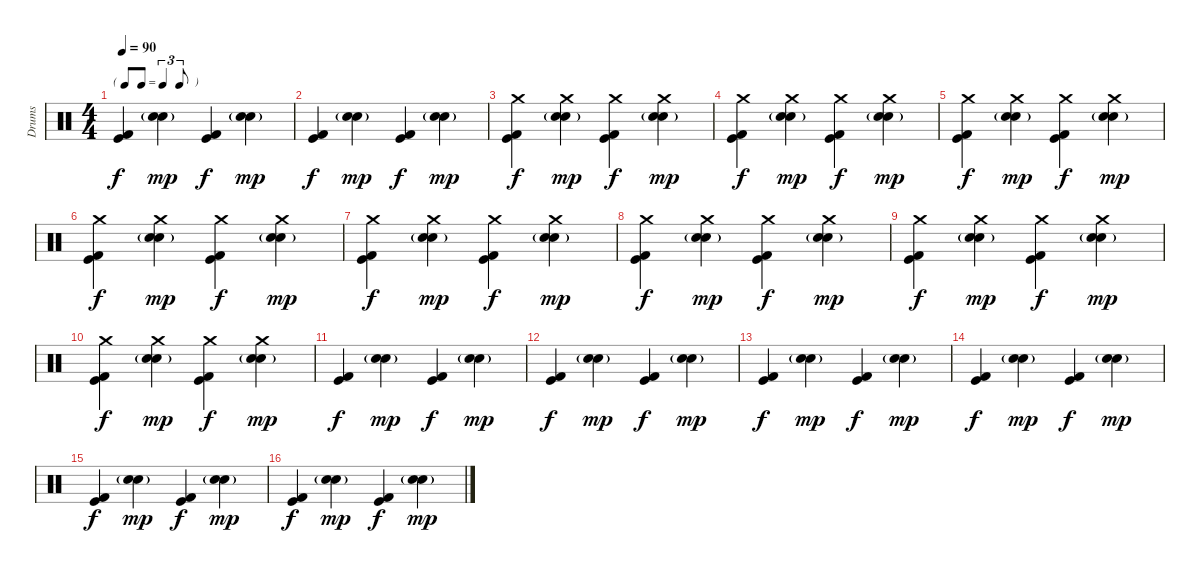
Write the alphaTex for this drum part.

\track ("Drums" "Drums") {instrument percussion}
\staff {score}
\articulation defaults
\ts (4 4)
\tf triplet8th
\tempo 90
\clef neutral
\ks c
("Kick (hit)" "Kick (hit) 2").4{dy f} ("Snare (hit) 2" "Hand Clap (hit)"{g}).4{dy mp} ("Kick (hit)" "Kick (hit) 2").4{dy f} ("Snare (hit) 2" "Hand Clap (hit)"{g}).4{dy mp} |
("Kick (hit)" "Kick (hit) 2").4{dy f} ("Snare (hit) 2" "Hand Clap (hit)"{g}).4{dy mp} ("Kick (hit)" "Kick (hit) 2").4{dy f} ("Snare (hit) 2" "Hand Clap (hit)"{g}).4{dy mp} |
("Crash medium (hit)" "Kick (hit)" "Kick (hit) 2").4{dy f} ("Crash medium (hit)" "Snare (hit) 2" "Hand Clap (hit)"{g}).4{dy mp} ("Crash medium (hit)" "Kick (hit)" "Kick (hit) 2").4{dy f} ("Crash medium (hit)" "Snare (hit) 2" "Hand Clap (hit)"{g}).4{dy mp} |
("Crash medium (hit)" "Kick (hit)" "Kick (hit) 2").4{dy f} ("Crash medium (hit)" "Snare (hit) 2" "Hand Clap (hit)"{g}).4{dy mp} ("Crash medium (hit)" "Kick (hit)" "Kick (hit) 2").4{dy f} ("Crash medium (hit)" "Snare (hit) 2" "Hand Clap (hit)"{g}).4{dy mp} |
("Crash medium (hit)" "Kick (hit)" "Kick (hit) 2").4{dy f} ("Crash medium (hit)" "Snare (hit) 2" "Hand Clap (hit)"{g}).4{dy mp} ("Crash medium (hit)" "Kick (hit)" "Kick (hit) 2").4{dy f} ("Crash medium (hit)" "Snare (hit) 2" "Hand Clap (hit)"{g}).4{dy mp} |
("Crash medium (hit)" "Kick (hit)" "Kick (hit) 2").4{dy f} ("Crash medium (hit)" "Snare (hit) 2" "Hand Clap (hit)"{g}).4{dy mp} ("Crash medium (hit)" "Kick (hit)" "Kick (hit) 2").4{dy f} ("Crash medium (hit)" "Snare (hit) 2" "Hand Clap (hit)"{g}).4{dy mp} |
("Crash medium (hit)" "Kick (hit)" "Kick (hit) 2").4{dy f} ("Crash medium (hit)" "Snare (hit) 2" "Hand Clap (hit)"{g}).4{dy mp} ("Crash medium (hit)" "Kick (hit)" "Kick (hit) 2").4{dy f} ("Crash medium (hit)" "Snare (hit) 2" "Hand Clap (hit)"{g}).4{dy mp} |
("Crash medium (hit)" "Kick (hit)" "Kick (hit) 2").4{dy f} ("Crash medium (hit)" "Snare (hit) 2" "Hand Clap (hit)"{g}).4{dy mp} ("Crash medium (hit)" "Kick (hit)" "Kick (hit) 2").4{dy f} ("Crash medium (hit)" "Snare (hit) 2" "Hand Clap (hit)"{g}).4{dy mp} |
("Crash medium (hit)" "Kick (hit)" "Kick (hit) 2").4{dy f} ("Crash medium (hit)" "Snare (hit) 2" "Hand Clap (hit)"{g}).4{dy mp} ("Crash medium (hit)" "Kick (hit)" "Kick (hit) 2").4{dy f} ("Crash medium (hit)" "Snare (hit) 2" "Hand Clap (hit)"{g}).4{dy mp} |
("Crash medium (hit)" "Kick (hit)" "Kick (hit) 2").4{dy f} ("Crash medium (hit)" "Snare (hit) 2" "Hand Clap (hit)"{g}).4{dy mp} ("Crash medium (hit)" "Kick (hit)" "Kick (hit) 2").4{dy f} ("Crash medium (hit)" "Snare (hit) 2" "Hand Clap (hit)"{g}).4{dy mp} |
("Kick (hit)" "Kick (hit) 2").4{dy f} ("Snare (hit) 2" "Hand Clap (hit)"{g}).4{dy mp} ("Kick (hit)" "Kick (hit) 2").4{dy f} ("Snare (hit) 2" "Hand Clap (hit)"{g}).4{dy mp} |
("Kick (hit)" "Kick (hit) 2").4{dy f} ("Snare (hit) 2" "Hand Clap (hit)"{g}).4{dy mp} ("Kick (hit)" "Kick (hit) 2").4{dy f} ("Snare (hit) 2" "Hand Clap (hit)"{g}).4{dy mp} |
("Kick (hit)" "Kick (hit) 2").4{dy f} ("Snare (hit) 2" "Hand Clap (hit)"{g}).4{dy mp} ("Kick (hit)" "Kick (hit) 2").4{dy f} ("Snare (hit) 2" "Hand Clap (hit)"{g}).4{dy mp} |
("Kick (hit)" "Kick (hit) 2").4{dy f} ("Snare (hit) 2" "Hand Clap (hit)"{g}).4{dy mp} ("Kick (hit)" "Kick (hit) 2").4{dy f} ("Snare (hit) 2" "Hand Clap (hit)"{g}).4{dy mp} |
("Kick (hit)" "Kick (hit) 2").4{dy f} ("Snare (hit) 2" "Hand Clap (hit)"{g}).4{dy mp} ("Kick (hit)" "Kick (hit) 2").4{dy f} ("Snare (hit) 2" "Hand Clap (hit)"{g}).4{dy mp} |
("Kick (hit)" "Kick (hit) 2").4{dy f} ("Snare (hit) 2" "Hand Clap (hit)"{g}).4{dy mp} ("Kick (hit)" "Kick (hit) 2").4{dy f} ("Snare (hit) 2" "Hand Clap (hit)"{g}).4{dy mp}
